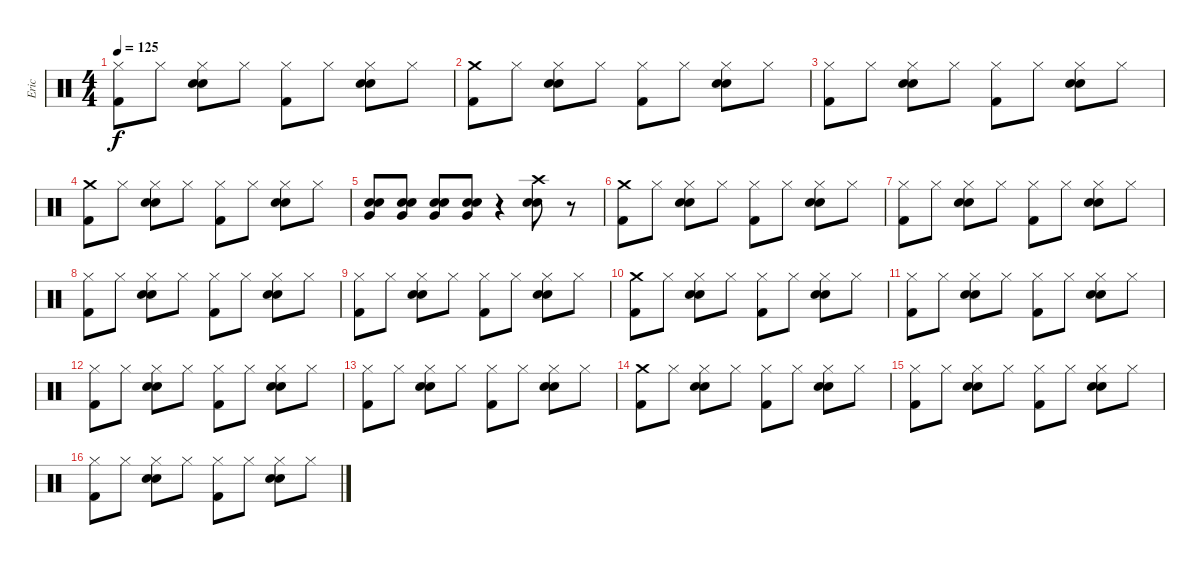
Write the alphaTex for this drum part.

\track ("Eric" "Eric") {instrument percussion}
\staff {score}
\articulation defaults
\ts (4 4)
\tempo 125
\clef neutral
\ks c
("Hi-Hat (closed)" "Kick (hit) 2").8{dy f} "Hi-Hat (closed)".8 ("Hi-Hat (closed)" "Electric Snare (hit)" "Snare (hit) 2").8 "Hi-Hat (closed)".8 ("Hi-Hat (closed)" "Kick (hit) 2").8 "Hi-Hat (closed)".8 ("Hi-Hat (closed)" "Snare (hit) 2" "Electric Snare (hit)").8 "Hi-Hat (closed)".8 |
("Crash medium (hit)" "Kick (hit) 2").8 "Hi-Hat (closed)".8 ("Hi-Hat (closed)" "Electric Snare (hit)" "Snare (hit) 2").8 "Hi-Hat (closed)".8 ("Hi-Hat (closed)" "Kick (hit) 2").8 "Hi-Hat (closed)".8 ("Hi-Hat (closed)" "Snare (hit) 2" "Electric Snare (hit)").8 "Hi-Hat (closed)".8 |
("Hi-Hat (closed)" "Kick (hit) 2").8 "Hi-Hat (closed)".8 ("Hi-Hat (closed)" "Electric Snare (hit)" "Snare (hit) 2").8 "Hi-Hat (closed)".8 ("Hi-Hat (closed)" "Kick (hit) 2").8 "Hi-Hat (closed)".8 ("Hi-Hat (closed)" "Snare (hit) 2" "Electric Snare (hit)").8 "Hi-Hat (closed)".8 |
("Crash medium (hit)" "Kick (hit) 2").8 "Hi-Hat (closed)".8 ("Hi-Hat (closed)" "Electric Snare (hit)" "Snare (hit) 2").8 "Hi-Hat (closed)".8 ("Hi-Hat (closed)" "Kick (hit) 2").8 "Hi-Hat (closed)".8 ("Hi-Hat (closed)" "Snare (hit) 2" "Electric Snare (hit)").8 "Hi-Hat (closed)".8 |
("Very Low Tom (hit)" "Electric Snare (hit)" "Snare (hit) 2").8 ("Very Low Tom (hit)" "Electric Snare (hit)" "Snare (hit) 2").8 ("Very Low Tom (hit)" "Electric Snare (hit)" "Snare (hit) 2").8 ("Very Low Tom (hit)" "Electric Snare (hit)" "Snare (hit) 2").8 r.4 ("Crash high (hit)" "Electric Snare (hit)" "Snare (hit) 2").8 r.8 |
("Crash medium (hit)" "Kick (hit) 2").8 "Hi-Hat (closed)".8 ("Hi-Hat (closed)" "Electric Snare (hit)" "Snare (hit) 2").8 "Hi-Hat (closed)".8 ("Hi-Hat (closed)" "Kick (hit) 2").8 "Hi-Hat (closed)".8 ("Hi-Hat (closed)" "Snare (hit) 2" "Electric Snare (hit)").8 "Hi-Hat (closed)".8 |
("Hi-Hat (closed)" "Kick (hit) 2").8 "Hi-Hat (closed)".8 ("Hi-Hat (closed)" "Electric Snare (hit)" "Snare (hit) 2").8 "Hi-Hat (closed)".8 ("Hi-Hat (closed)" "Kick (hit) 2").8 "Hi-Hat (closed)".8 ("Hi-Hat (closed)" "Snare (hit) 2" "Electric Snare (hit)").8 "Hi-Hat (closed)".8 |
("Hi-Hat (closed)" "Kick (hit) 2").8 "Hi-Hat (closed)".8 ("Hi-Hat (closed)" "Electric Snare (hit)" "Snare (hit) 2").8 "Hi-Hat (closed)".8 ("Hi-Hat (closed)" "Kick (hit) 2").8 "Hi-Hat (closed)".8 ("Hi-Hat (closed)" "Snare (hit) 2" "Electric Snare (hit)").8 "Hi-Hat (closed)".8 |
("Hi-Hat (closed)" "Kick (hit) 2").8 "Hi-Hat (closed)".8 ("Hi-Hat (closed)" "Electric Snare (hit)" "Snare (hit) 2").8 "Hi-Hat (closed)".8 ("Hi-Hat (closed)" "Kick (hit) 2").8 "Hi-Hat (closed)".8 ("Hi-Hat (closed)" "Snare (hit) 2" "Electric Snare (hit)").8 "Hi-Hat (closed)".8 |
("Crash medium (hit)" "Kick (hit) 2").8 "Hi-Hat (closed)".8 ("Hi-Hat (closed)" "Electric Snare (hit)" "Snare (hit) 2").8 "Hi-Hat (closed)".8 ("Hi-Hat (closed)" "Kick (hit) 2").8 "Hi-Hat (closed)".8 ("Hi-Hat (closed)" "Snare (hit) 2" "Electric Snare (hit)").8 "Hi-Hat (closed)".8 |
("Hi-Hat (closed)" "Kick (hit) 2").8 "Hi-Hat (closed)".8 ("Hi-Hat (closed)" "Electric Snare (hit)" "Snare (hit) 2").8 "Hi-Hat (closed)".8 ("Hi-Hat (closed)" "Kick (hit) 2").8 "Hi-Hat (closed)".8 ("Hi-Hat (closed)" "Snare (hit) 2" "Electric Snare (hit)").8 "Hi-Hat (closed)".8 |
("Hi-Hat (closed)" "Kick (hit) 2").8 "Hi-Hat (closed)".8 ("Hi-Hat (closed)" "Electric Snare (hit)" "Snare (hit) 2").8 "Hi-Hat (closed)".8 ("Hi-Hat (closed)" "Kick (hit) 2").8 "Hi-Hat (closed)".8 ("Hi-Hat (closed)" "Snare (hit) 2" "Electric Snare (hit)").8 "Hi-Hat (closed)".8 |
("Hi-Hat (closed)" "Kick (hit) 2").8 "Hi-Hat (closed)".8 ("Hi-Hat (closed)" "Electric Snare (hit)" "Snare (hit) 2").8 "Hi-Hat (closed)".8 ("Hi-Hat (closed)" "Kick (hit) 2").8 "Hi-Hat (closed)".8 ("Hi-Hat (closed)" "Snare (hit) 2" "Electric Snare (hit)").8 "Hi-Hat (closed)".8 |
("Crash medium (hit)" "Kick (hit) 2").8 "Hi-Hat (closed)".8 ("Hi-Hat (closed)" "Electric Snare (hit)" "Snare (hit) 2").8 "Hi-Hat (closed)".8 ("Hi-Hat (closed)" "Kick (hit) 2").8 "Hi-Hat (closed)".8 ("Hi-Hat (closed)" "Snare (hit) 2" "Electric Snare (hit)").8 "Hi-Hat (closed)".8 |
("Hi-Hat (closed)" "Kick (hit) 2").8 "Hi-Hat (closed)".8 ("Hi-Hat (closed)" "Electric Snare (hit)" "Snare (hit) 2").8 "Hi-Hat (closed)".8 ("Hi-Hat (closed)" "Kick (hit) 2").8 "Hi-Hat (closed)".8 ("Hi-Hat (closed)" "Snare (hit) 2" "Electric Snare (hit)").8 "Hi-Hat (closed)".8 |
("Hi-Hat (closed)" "Kick (hit) 2").8 "Hi-Hat (closed)".8 ("Hi-Hat (closed)" "Electric Snare (hit)" "Snare (hit) 2").8 "Hi-Hat (closed)".8 ("Hi-Hat (closed)" "Kick (hit) 2").8 "Hi-Hat (closed)".8 ("Hi-Hat (closed)" "Snare (hit) 2" "Electric Snare (hit)").8 "Hi-Hat (closed)".8
